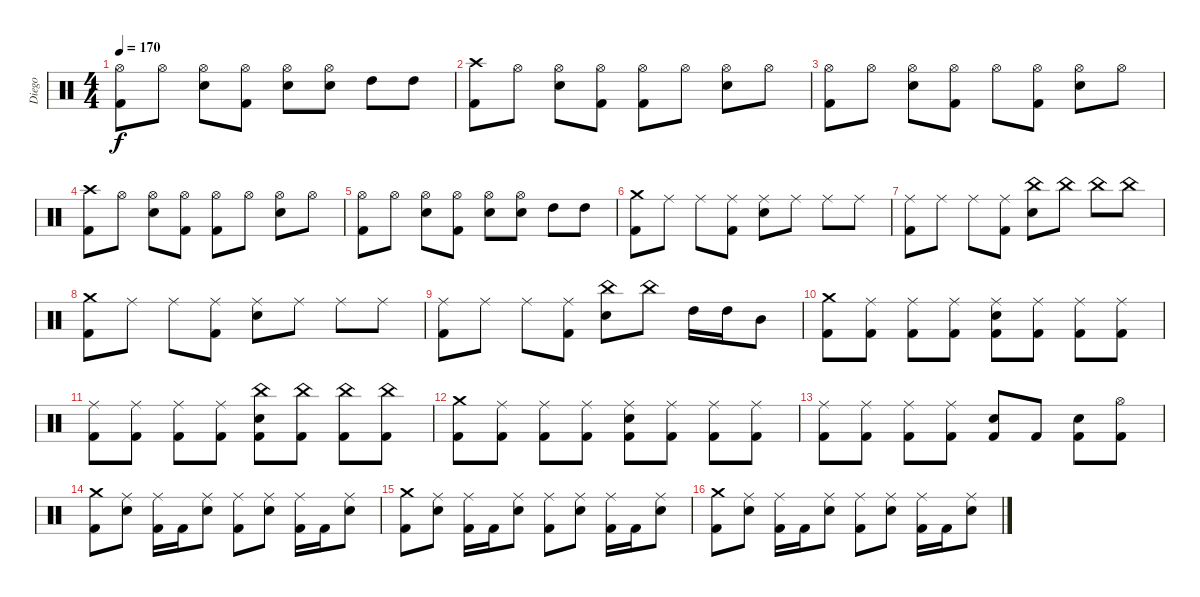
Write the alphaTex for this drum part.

\track ("Diego" "Diego") {instrument percussion}
\staff {score}
\articulation defaults
\ts (4 4)
\tempo 170
\clef neutral
\ks c
("Hi-Hat (open)" "Kick (hit) 2").8{dy f} "Hi-Hat (open)".8 ("Hi-Hat (open)" "Electric Snare (hit)").8 ("Hi-Hat (open)" "Kick (hit) 2").8 ("Hi-Hat (open)" "Electric Snare (hit)").8 ("Hi-Hat (open)" "Electric Snare (hit)").8 "High Tom (hit)".8 "High Tom (hit)".8 |
("Crash high (hit)" "Kick (hit) 2").8 "Hi-Hat (open)".8 ("Hi-Hat (open)" "Electric Snare (hit)").8 ("Hi-Hat (open)" "Kick (hit) 2").8 ("Hi-Hat (open)" "Kick (hit) 2").8 "Hi-Hat (open)".8 ("Hi-Hat (open)" "Electric Snare (hit)").8 "Hi-Hat (open)".8 |
("Hi-Hat (open)" "Kick (hit) 2").8 "Hi-Hat (open)".8 ("Hi-Hat (open)" "Electric Snare (hit)").8 ("Hi-Hat (open)" "Kick (hit) 2").8 "Hi-Hat (open)".8 ("Hi-Hat (open)" "Kick (hit) 2").8 ("Hi-Hat (open)" "Electric Snare (hit)").8 "Hi-Hat (open)".8 |
("Crash high (hit)" "Kick (hit) 2").8 "Hi-Hat (open)".8 ("Hi-Hat (open)" "Electric Snare (hit)").8 ("Hi-Hat (open)" "Kick (hit) 2").8 ("Hi-Hat (open)" "Kick (hit) 2").8 "Hi-Hat (open)".8 ("Hi-Hat (open)" "Electric Snare (hit)").8 "Hi-Hat (open)".8 |
("Hi-Hat (open)" "Kick (hit) 2").8 "Hi-Hat (open)".8 ("Hi-Hat (open)" "Electric Snare (hit)").8 ("Hi-Hat (open)" "Kick (hit) 2").8 ("Hi-Hat (open)" "Electric Snare (hit)").8 ("Hi-Hat (open)" "Electric Snare (hit)").8 "High Tom (hit)".8 "High Tom (hit)".8 |
("Crash medium (hit)" "Kick (hit) 2").8 "Ride (middle)".8 "Ride (middle)".8 ("Ride (middle)" "Kick (hit) 2").8 ("Ride (middle)" "Electric Snare (hit)").8 "Ride (middle)".8 "Ride (middle)".8 "Ride (middle)".8 |
("Ride (middle)" "Kick (hit) 2").8 "Ride (middle)".8 "Ride (middle)".8 ("Ride (middle)" "Kick (hit) 2").8 ("China (hit)" "Electric Snare (hit)").8 "China (hit)".8 "China (hit)".8 "China (hit)".8 |
("Crash medium (hit)" "Kick (hit) 2").8 "Ride (middle)".8 "Ride (middle)".8 ("Ride (middle)" "Kick (hit) 2").8 ("Ride (middle)" "Electric Snare (hit)").8 "Ride (middle)".8 "Ride (middle)".8 "Ride (middle)".8 |
("Ride (middle)" "Kick (hit) 2").8 "Ride (middle)".8 "Ride (middle)".8 ("Ride (middle)" "Kick (hit) 2").8 ("China (hit)" "Electric Snare (hit)").8 "China (hit)".8 "High Tom (hit)".16 "High Tom (hit)".16 "Mid Tom (hit)".8 |
("Crash medium (hit)" "Kick (hit) 2").8 ("Ride (middle)" "Kick (hit) 2").8 ("Ride (middle)" "Kick (hit) 2").8 ("Ride (middle)" "Kick (hit) 2").8 ("Ride (middle)" "Electric Snare (hit)" "Kick (hit) 2").8 ("Ride (middle)" "Kick (hit) 2").8 ("Ride (middle)" "Kick (hit) 2").8 ("Ride (middle)" "Kick (hit) 2").8 |
("Ride (middle)" "Kick (hit) 2").8 ("Ride (middle)" "Kick (hit) 2").8 ("Ride (middle)" "Kick (hit) 2").8 ("Ride (middle)" "Kick (hit) 2").8 ("China (hit)" "Electric Snare (hit)" "Kick (hit) 2").8 ("China (hit)" "Kick (hit) 2").8 ("China (hit)" "Kick (hit) 2").8 ("China (hit)" "Kick (hit) 2").8 |
("Crash medium (hit)" "Kick (hit) 2").8 ("Ride (middle)" "Kick (hit) 2").8 ("Ride (middle)" "Kick (hit) 2").8 ("Ride (middle)" "Kick (hit) 2").8 ("Ride (middle)" "Electric Snare (hit)" "Kick (hit) 2").8 ("Ride (middle)" "Kick (hit) 2").8 ("Ride (middle)" "Kick (hit) 2").8 ("Ride (middle)" "Kick (hit) 2").8 |
("Ride (middle)" "Kick (hit) 2").8 ("Ride (middle)" "Kick (hit) 2").8 ("Ride (middle)" "Kick (hit) 2").8 ("Ride (middle)" "Kick (hit) 2").8 ("Electric Snare (hit)" "Kick (hit) 2").8 "Kick (hit) 2".8 ("Electric Snare (hit)" "Kick (hit) 2").8 ("Hi-Hat (open)" "Kick (hit) 2").8 |
("Crash medium (hit)" "Kick (hit) 2").8 ("Ride (middle)" "Electric Snare (hit)").8 ("Ride (middle)" "Kick (hit) 2").16 "Kick (hit) 2".16 ("Ride (middle)" "Electric Snare (hit)").8 ("Ride (middle)" "Kick (hit) 2").8 ("Ride (middle)" "Electric Snare (hit)").8 ("Ride (middle)" "Kick (hit) 2").16 "Kick (hit) 2".16 ("Ride (middle)" "Electric Snare (hit)").8 |
("Crash medium (hit)" "Kick (hit) 2").8 ("Ride (middle)" "Electric Snare (hit)").8 ("Ride (middle)" "Kick (hit) 2").16 "Kick (hit) 2".16 ("Ride (middle)" "Electric Snare (hit)").8 ("Ride (middle)" "Kick (hit) 2").8 ("Ride (middle)" "Electric Snare (hit)").8 ("Ride (middle)" "Kick (hit) 2").16 "Kick (hit) 2".16 ("Ride (middle)" "Electric Snare (hit)").8 |
("Crash medium (hit)" "Kick (hit) 2").8 ("Ride (middle)" "Electric Snare (hit)").8 ("Ride (middle)" "Kick (hit) 2").16 "Kick (hit) 2".16 ("Ride (middle)" "Electric Snare (hit)").8 ("Ride (middle)" "Kick (hit) 2").8 ("Ride (middle)" "Electric Snare (hit)").8 ("Ride (middle)" "Kick (hit) 2").16 "Kick (hit) 2".16 ("Ride (middle)" "Electric Snare (hit)").8
